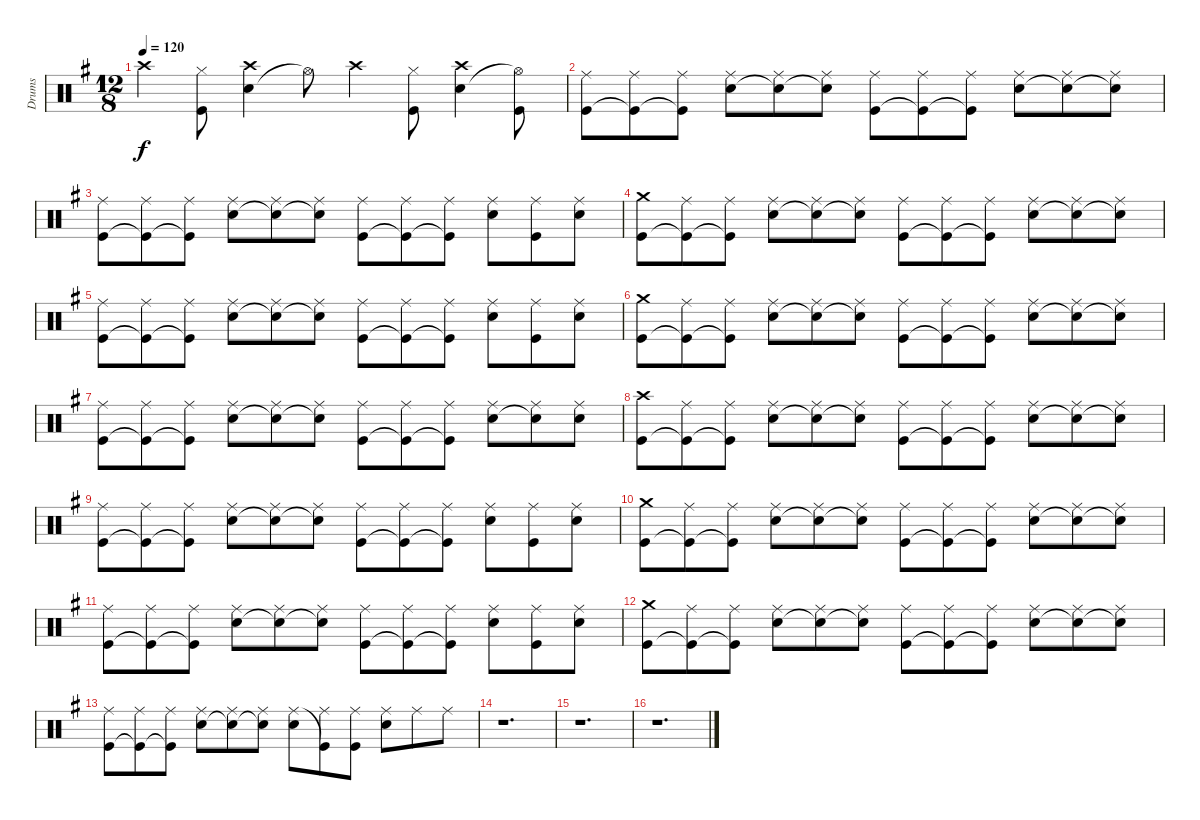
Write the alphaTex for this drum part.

\track ("Drums" "Drums") {instrument percussion}
\staff {score}
\articulation defaults
\ts (12 8)
\tempo 120
\clef neutral
\ks g "Crash high (hit)".4{dy f}
("Hi-Hat (closed)" "Kick (hit)").8 ("Snare (hit) 2" "Crash high (hit)").4 "Hi-Hat (open)"{t}.8 "Crash high (hit)".4 ("Hi-Hat (closed)" "Kick (hit)").8 ("Snare (hit) 2" "Crash high (hit)").4 ("Hi-Hat (open)"{t} "Kick (hit)").8 |
("Ride (middle)" "Kick (hit)").8 ("Ride (middle)" "Kick (hit)"{t}).8 ("Ride (middle)" "Kick (hit)"{t}).8 ("Snare (hit) 2" "Ride (middle)").8 ("Snare (hit) 2"{t} "Ride (middle)").8 ("Snare (hit) 2"{t} "Ride (middle)").8 ("Ride (middle)" "Kick (hit)").8 ("Ride (middle)" "Kick (hit)"{t}).8 ("Ride (middle)" "Kick (hit)"{t}).8 ("Snare (hit) 2" "Ride (middle)").8 ("Snare (hit) 2"{t} "Ride (middle)").8 ("Snare (hit) 2"{t} "Ride (middle)").8 |
("Ride (middle)" "Kick (hit)").8 ("Ride (middle)" "Kick (hit)"{t}).8 ("Ride (middle)" "Kick (hit)"{t}).8 ("Snare (hit) 2" "Ride (middle)").8 ("Snare (hit) 2"{t} "Ride (middle)").8 ("Snare (hit) 2"{t} "Ride (middle)").8 ("Ride (middle)" "Kick (hit)").8 ("Ride (middle)" "Kick (hit)"{t}).8 ("Ride (middle)" "Kick (hit)"{t}).8 ("Snare (hit) 2" "Ride (middle)").8 ("Ride (middle)" "Kick (hit)").8 ("Snare (hit) 2" "Ride (middle)").8 |
("Crash medium (hit)" "Kick (hit)").8 ("Ride (middle)" "Kick (hit)"{t}).8 ("Ride (middle)" "Kick (hit)"{t}).8 ("Snare (hit) 2" "Ride (middle)").8 ("Snare (hit) 2"{t} "Ride (middle)").8 ("Snare (hit) 2"{t} "Ride (middle)").8 ("Ride (middle)" "Kick (hit)").8 ("Ride (middle)" "Kick (hit)"{t}).8 ("Ride (middle)" "Kick (hit)"{t}).8 ("Snare (hit) 2" "Ride (middle)").8 ("Snare (hit) 2"{t} "Ride (middle)").8 ("Snare (hit) 2"{t} "Ride (middle)").8 |
("Ride (middle)" "Kick (hit)").8 ("Ride (middle)" "Kick (hit)"{t}).8 ("Ride (middle)" "Kick (hit)"{t}).8 ("Snare (hit) 2" "Ride (middle)").8 ("Snare (hit) 2"{t} "Ride (middle)").8 ("Snare (hit) 2"{t} "Ride (middle)").8 ("Ride (middle)" "Kick (hit)").8 ("Ride (middle)" "Kick (hit)"{t}).8 ("Ride (middle)" "Kick (hit)"{t}).8 ("Snare (hit) 2" "Ride (middle)").8 ("Ride (middle)" "Kick (hit)").8 ("Snare (hit) 2" "Ride (middle)").8 |
("Crash medium (hit)" "Kick (hit)").8 ("Ride (middle)" "Kick (hit)"{t}).8 ("Ride (middle)" "Kick (hit)"{t}).8 ("Snare (hit) 2" "Ride (middle)").8 ("Snare (hit) 2"{t} "Ride (middle)").8 ("Snare (hit) 2"{t} "Ride (middle)").8 ("Ride (middle)" "Kick (hit)").8 ("Ride (middle)" "Kick (hit)"{t}).8 ("Ride (middle)" "Kick (hit)"{t}).8 ("Snare (hit) 2" "Ride (middle)").8 ("Snare (hit) 2"{t} "Ride (middle)").8 ("Snare (hit) 2"{t} "Ride (middle)").8 |
("Ride (middle)" "Kick (hit)").8 ("Ride (middle)" "Kick (hit)"{t}).8 ("Ride (middle)" "Kick (hit)"{t}).8 ("Snare (hit) 2" "Ride (middle)").8 ("Snare (hit) 2"{t} "Ride (middle)").8 ("Snare (hit) 2"{t} "Ride (middle)").8 ("Ride (middle)" "Kick (hit)").8 ("Ride (middle)" "Kick (hit)"{t}).8 ("Ride (middle)" "Kick (hit)"{t}).8 ("Snare (hit) 2" "Ride (middle)").8 ("Snare (hit) 2"{t} "Ride (middle)").8 ("Snare (hit) 2" "Ride (middle)").8 |
("Crash high (hit)" "Kick (hit)").8 ("Ride (middle)" "Kick (hit)"{t}).8 ("Ride (middle)" "Kick (hit)"{t}).8 ("Snare (hit) 2" "Ride (middle)").8 ("Snare (hit) 2"{t} "Ride (middle)").8 ("Snare (hit) 2"{t} "Ride (middle)").8 ("Ride (middle)" "Kick (hit)").8 ("Ride (middle)" "Kick (hit)"{t}).8 ("Ride (middle)" "Kick (hit)"{t}).8 ("Snare (hit) 2" "Ride (middle)").8 ("Snare (hit) 2"{t} "Ride (middle)").8 ("Snare (hit) 2"{t} "Ride (middle)").8 |
("Ride (middle)" "Kick (hit)").8 ("Ride (middle)" "Kick (hit)"{t}).8 ("Ride (middle)" "Kick (hit)"{t}).8 ("Snare (hit) 2" "Ride (middle)").8 ("Snare (hit) 2"{t} "Ride (middle)").8 ("Snare (hit) 2"{t} "Ride (middle)").8 ("Ride (middle)" "Kick (hit)").8 ("Ride (middle)" "Kick (hit)"{t}).8 ("Ride (middle)" "Kick (hit)"{t}).8 ("Snare (hit) 2" "Ride (middle)").8 ("Ride (middle)" "Kick (hit)").8 ("Snare (hit) 2" "Ride (middle)").8 |
("Crash medium (hit)" "Kick (hit)").8 ("Ride (middle)" "Kick (hit)"{t}).8 ("Ride (middle)" "Kick (hit)"{t}).8 ("Snare (hit) 2" "Ride (middle)").8 ("Snare (hit) 2"{t} "Ride (middle)").8 ("Snare (hit) 2"{t} "Ride (middle)").8 ("Ride (middle)" "Kick (hit)").8 ("Ride (middle)" "Kick (hit)"{t}).8 ("Ride (middle)" "Kick (hit)"{t}).8 ("Snare (hit) 2" "Ride (middle)").8 ("Snare (hit) 2"{t} "Ride (middle)").8 ("Snare (hit) 2"{t} "Ride (middle)").8 |
("Ride (middle)" "Kick (hit)").8 ("Ride (middle)" "Kick (hit)"{t}).8 ("Ride (middle)" "Kick (hit)"{t}).8 ("Snare (hit) 2" "Ride (middle)").8 ("Snare (hit) 2"{t} "Ride (middle)").8 ("Snare (hit) 2"{t} "Ride (middle)").8 ("Ride (middle)" "Kick (hit)").8 ("Ride (middle)" "Kick (hit)"{t}).8 ("Ride (middle)" "Kick (hit)"{t}).8 ("Snare (hit) 2" "Ride (middle)").8 ("Ride (middle)" "Kick (hit)").8 ("Snare (hit) 2" "Ride (middle)").8 |
("Crash medium (hit)" "Kick (hit)").8 ("Ride (middle)" "Kick (hit)"{t}).8 ("Ride (middle)" "Kick (hit)"{t}).8 ("Snare (hit) 2" "Ride (middle)").8 ("Snare (hit) 2"{t} "Ride (middle)").8 ("Snare (hit) 2"{t} "Ride (middle)").8 ("Ride (middle)" "Kick (hit)").8 ("Ride (middle)" "Kick (hit)"{t}).8 ("Ride (middle)" "Kick (hit)"{t}).8 ("Snare (hit) 2" "Ride (middle)").8 ("Snare (hit) 2"{t} "Ride (middle)").8 ("Snare (hit) 2"{t} "Ride (middle)").8 |
("Ride (middle)" "Kick (hit)").8 ("Ride (middle)" "Kick (hit)"{t}).8 ("Ride (middle)" "Kick (hit)"{t}).8 ("Snare (hit) 2" "Ride (middle)").8 ("Snare (hit) 2"{t} "Ride (middle)").8 ("Snare (hit) 2"{t} "Ride (middle)").8 ("Snare (hit) 2" "Ride (middle)").8 ("Ride (middle)" "Kick (hit)"{t}).8 ("Ride (middle)" "Kick (hit)").8 ("Snare (hit) 2" "Ride (middle)").8 "Ride (middle)".8 "Ride (middle)".8 |
r.1{d} |
r.1{d} |
r.1{d}
